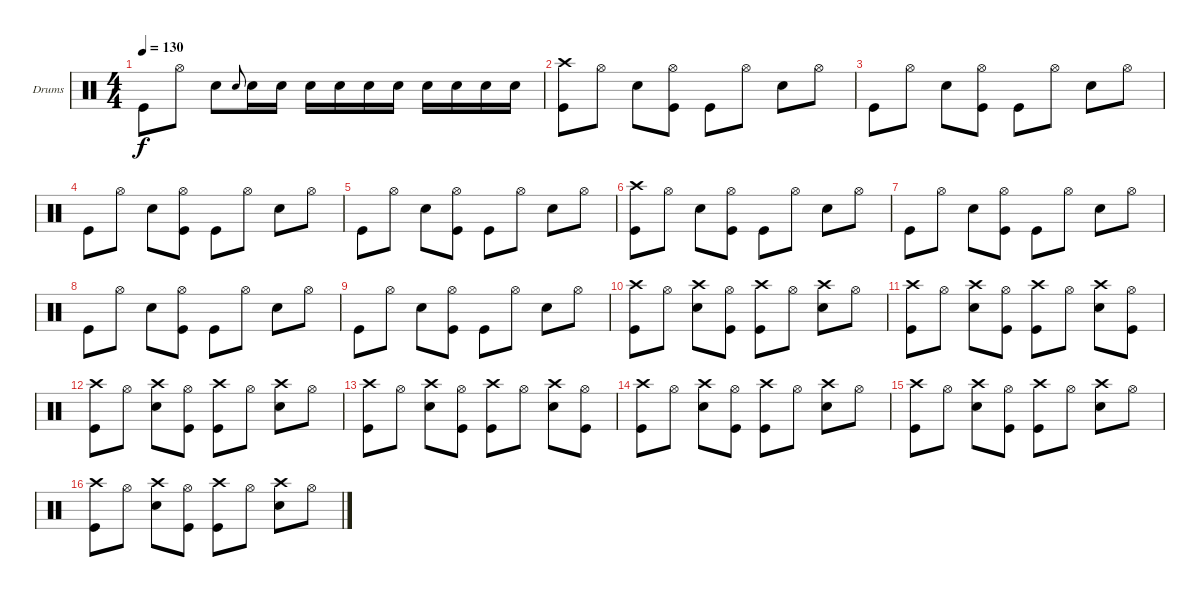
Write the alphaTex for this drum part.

\defaultSystemsLayout 4
\bracketExtendMode groupsimilarinstruments
\firstSystemTrackNameOrientation horizontal
\otherSystemsTrackNameOrientation horizontal
\track ("Drumkit" "Drums") {instrument percussion}
\staff {score}
\articulation defaults
\ts (4 4)
\tempo 130
\clef neutral
\ks c "Kick (hit)".8{dy f} "Hi-Hat (open)".8 "Snare (hit) 2".8 "Snare (hit) 2".8{gr onbeat} "Snare (hit) 2".16 "Snare (hit) 2".16 "Snare (hit) 2".16 "Snare (hit) 2".16 "Snare (hit) 2".16 "Snare (hit) 2".16 "Snare (hit) 2".16 "Snare (hit) 2".16 "Snare (hit) 2".16 "Snare (hit) 2".16
|
("Kick (hit)" "Crash high (hit)").8 "Hi-Hat (open)".8 "Snare (hit) 2".8 ("Kick (hit)" "Hi-Hat (open)").8 "Kick (hit)".8 "Hi-Hat (open)".8 "Snare (hit) 2".8 "Hi-Hat (open)".8 |
"Kick (hit)".8 "Hi-Hat (open)".8 "Snare (hit) 2".8 ("Kick (hit)" "Hi-Hat (open)").8 "Kick (hit)".8 "Hi-Hat (open)".8 "Snare (hit) 2".8 "Hi-Hat (open)".8 |
"Kick (hit)".8 "Hi-Hat (open)".8 "Snare (hit) 2".8 ("Kick (hit)" "Hi-Hat (open)").8 "Kick (hit)".8 "Hi-Hat (open)".8 "Snare (hit) 2".8 "Hi-Hat (open)".8 |
"Kick (hit)".8 "Hi-Hat (open)".8 "Snare (hit) 2".8 ("Kick (hit)" "Hi-Hat (open)").8 "Kick (hit)".8 "Hi-Hat (open)".8 "Snare (hit) 2".8 "Hi-Hat (open)".8 |
("Kick (hit)" "Crash high (hit)").8 "Hi-Hat (open)".8 "Snare (hit) 2".8 ("Kick (hit)" "Hi-Hat (open)").8 "Kick (hit)".8 "Hi-Hat (open)".8 "Snare (hit) 2".8 "Hi-Hat (open)".8 |
"Kick (hit)".8 "Hi-Hat (open)".8 "Snare (hit) 2".8 ("Kick (hit)" "Hi-Hat (open)").8 "Kick (hit)".8 "Hi-Hat (open)".8 "Snare (hit) 2".8 "Hi-Hat (open)".8 |
"Kick (hit)".8 "Hi-Hat (open)".8 "Snare (hit) 2".8 ("Kick (hit)" "Hi-Hat (open)").8 "Kick (hit)".8 "Hi-Hat (open)".8 "Snare (hit) 2".8 "Hi-Hat (open)".8 |
"Kick (hit)".8 "Hi-Hat (open)".8 "Snare (hit) 2".8 ("Kick (hit)" "Hi-Hat (open)").8 "Kick (hit)".8 "Hi-Hat (open)".8 "Snare (hit) 2".8 "Hi-Hat (open)".8 |
("Kick (hit)" "Crash high (hit)").8 "Hi-Hat (open)".8 ("Snare (hit) 2" "Crash high (hit)").8 ("Kick (hit)" "Hi-Hat (open)").8 ("Kick (hit)" "Crash high (hit)").8 "Hi-Hat (open)".8 ("Snare (hit) 2" "Crash high (hit)").8 "Hi-Hat (open)".8 |
("Kick (hit)" "Crash high (hit)").8 "Hi-Hat (open)".8 ("Snare (hit) 2" "Crash high (hit)").8 ("Kick (hit)" "Hi-Hat (open)").8 ("Kick (hit)" "Crash high (hit)").8 "Hi-Hat (open)".8 ("Snare (hit) 2" "Crash high (hit)").8 ("Kick (hit)" "Hi-Hat (open)").8 |
("Kick (hit)" "Crash high (hit)").8 "Hi-Hat (open)".8 ("Snare (hit) 2" "Crash high (hit)").8 ("Kick (hit)" "Hi-Hat (open)").8 ("Kick (hit)" "Crash high (hit)").8 "Hi-Hat (open)".8 ("Snare (hit) 2" "Crash high (hit)").8 "Hi-Hat (open)".8 |
("Kick (hit)" "Crash high (hit)").8 "Hi-Hat (open)".8 ("Snare (hit) 2" "Crash high (hit)").8 ("Kick (hit)" "Hi-Hat (open)").8 ("Kick (hit)" "Crash high (hit)").8 "Hi-Hat (open)".8 ("Snare (hit) 2" "Crash high (hit)").8 ("Kick (hit)" "Hi-Hat (open)").8 |
("Kick (hit)" "Crash high (hit)").8 "Hi-Hat (open)".8 ("Snare (hit) 2" "Crash high (hit)").8 ("Kick (hit)" "Hi-Hat (open)").8 ("Kick (hit)" "Crash high (hit)").8 "Hi-Hat (open)".8 ("Snare (hit) 2" "Crash high (hit)").8 "Hi-Hat (open)".8 |
("Kick (hit)" "Crash high (hit)").8 "Hi-Hat (open)".8 ("Snare (hit) 2" "Crash high (hit)").8 ("Kick (hit)" "Hi-Hat (open)").8 ("Kick (hit)" "Crash high (hit)").8 "Hi-Hat (open)".8 ("Snare (hit) 2" "Crash high (hit)").8 "Hi-Hat (open)".8 |
("Kick (hit)" "Crash high (hit)").8 "Hi-Hat (open)".8 ("Snare (hit) 2" "Crash high (hit)").8 ("Kick (hit)" "Hi-Hat (open)").8 ("Kick (hit)" "Crash high (hit)").8 "Hi-Hat (open)".8 ("Snare (hit) 2" "Crash high (hit)").8 "Hi-Hat (open)".8
